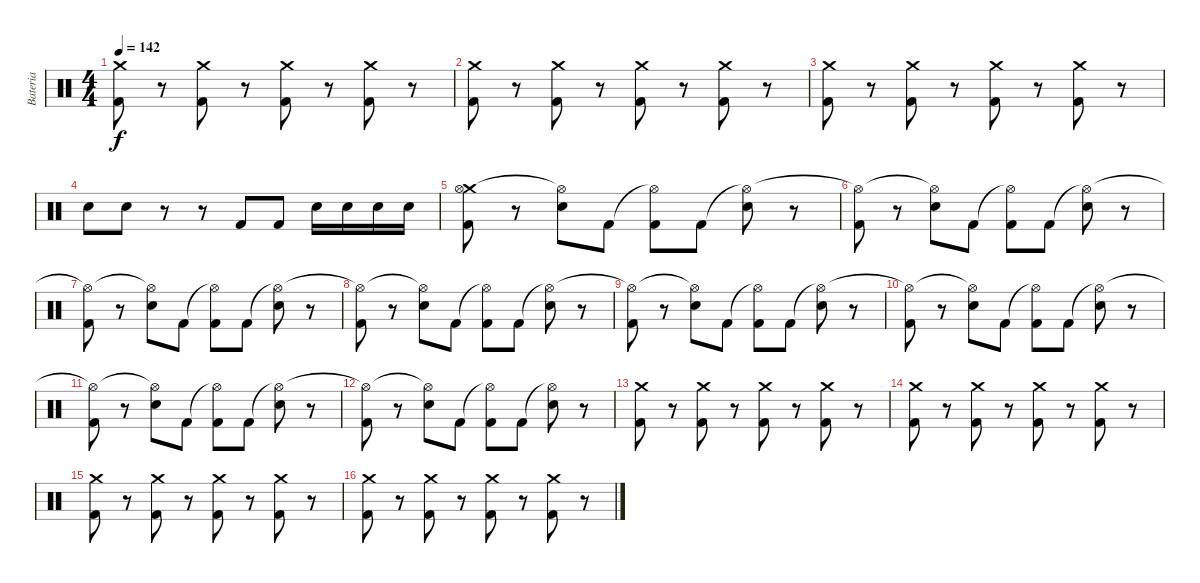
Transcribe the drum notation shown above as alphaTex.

\track ("Bateria" "Bateria") {instrument percussion}
\staff {score}
\articulation defaults
\ts (4 4)
\tempo 142
\clef neutral
\ks c
("Crash medium (hit)" "Kick (hit) 2").8{dy f} r.8 ("Crash medium (hit)" "Kick (hit) 2").8 r.8 ("Crash medium (hit)" "Kick (hit) 2").8 r.8 ("Crash medium (hit)" "Kick (hit) 2").8 r.8 |
("Crash medium (hit)" "Kick (hit) 2").8 r.8 ("Crash medium (hit)" "Kick (hit) 2").8 r.8 ("Crash medium (hit)" "Kick (hit) 2").8 r.8 ("Crash medium (hit)" "Kick (hit) 2").8 r.8 |
("Crash medium (hit)" "Kick (hit) 2").8 r.8 ("Crash medium (hit)" "Kick (hit) 2").8 r.8 ("Crash medium (hit)" "Kick (hit) 2").8 r.8 ("Crash medium (hit)" "Kick (hit) 2").8 r.8 |
"Electric Snare (hit)".8 "Electric Snare (hit)".8 r.8 r.8 "Kick (hit) 2".8 "Kick (hit) 2".8 "Electric Snare (hit)".16 "Electric Snare (hit)".16 "Electric Snare (hit)".16 "Electric Snare (hit)".16 |
("Crash medium (hit)" "Hi-Hat (open)" "Kick (hit) 2").8 r.8 ("Hi-Hat (open)"{t} "Electric Snare (hit)").8 "Kick (hit) 2".8 ("Hi-Hat (open)"{t} "Kick (hit) 2").8 "Kick (hit) 2".8 ("Hi-Hat (open)"{t} "Electric Snare (hit)").8 r.8 |
("Hi-Hat (open)"{t} "Kick (hit) 2").8 r.8 ("Hi-Hat (open)"{t} "Electric Snare (hit)").8 "Kick (hit) 2".8 ("Hi-Hat (open)"{t} "Kick (hit) 2").8 "Kick (hit) 2".8 ("Hi-Hat (open)"{t} "Electric Snare (hit)").8 r.8 |
("Hi-Hat (open)"{t} "Kick (hit) 2").8 r.8 ("Hi-Hat (open)"{t} "Electric Snare (hit)").8 "Kick (hit) 2".8 ("Hi-Hat (open)"{t} "Kick (hit) 2").8 "Kick (hit) 2".8 ("Hi-Hat (open)"{t} "Electric Snare (hit)").8 r.8 |
("Hi-Hat (open)"{t} "Kick (hit) 2").8 r.8 ("Hi-Hat (open)"{t} "Electric Snare (hit)").8 "Kick (hit) 2".8 ("Hi-Hat (open)"{t} "Kick (hit) 2").8 "Kick (hit) 2".8 ("Hi-Hat (open)"{t} "Electric Snare (hit)").8 r.8 |
("Hi-Hat (open)"{t} "Kick (hit) 2").8 r.8 ("Hi-Hat (open)"{t} "Electric Snare (hit)").8 "Kick (hit) 2".8 ("Hi-Hat (open)"{t} "Kick (hit) 2").8 "Kick (hit) 2".8 ("Hi-Hat (open)"{t} "Electric Snare (hit)").8 r.8 |
("Hi-Hat (open)"{t} "Kick (hit) 2").8 r.8 ("Hi-Hat (open)"{t} "Electric Snare (hit)").8 "Kick (hit) 2".8 ("Hi-Hat (open)"{t} "Kick (hit) 2").8 "Kick (hit) 2".8 ("Hi-Hat (open)"{t} "Electric Snare (hit)").8 r.8 |
("Hi-Hat (open)"{t} "Kick (hit) 2").8 r.8 ("Hi-Hat (open)"{t} "Electric Snare (hit)").8 "Kick (hit) 2".8 ("Hi-Hat (open)"{t} "Kick (hit) 2").8 "Kick (hit) 2".8 ("Hi-Hat (open)"{t} "Electric Snare (hit)").8 r.8 |
("Hi-Hat (open)"{t} "Kick (hit) 2").8 r.8 ("Hi-Hat (open)"{t} "Electric Snare (hit)").8 "Kick (hit) 2".8 ("Hi-Hat (open)"{t} "Kick (hit) 2").8 "Kick (hit) 2".8 ("Hi-Hat (open)"{t} "Electric Snare (hit)").8 r.8 |
("Crash medium (hit)" "Kick (hit) 2").8 r.8 ("Crash medium (hit)" "Kick (hit) 2").8 r.8 ("Crash medium (hit)" "Kick (hit) 2").8 r.8 ("Crash medium (hit)" "Kick (hit) 2").8 r.8 |
("Crash medium (hit)" "Kick (hit) 2").8 r.8 ("Crash medium (hit)" "Kick (hit) 2").8 r.8 ("Crash medium (hit)" "Kick (hit) 2").8 r.8 ("Crash medium (hit)" "Kick (hit) 2").8 r.8 |
("Crash medium (hit)" "Kick (hit) 2").8 r.8 ("Crash medium (hit)" "Kick (hit) 2").8 r.8 ("Crash medium (hit)" "Kick (hit) 2").8 r.8 ("Crash medium (hit)" "Kick (hit) 2").8 r.8 |
("Crash medium (hit)" "Kick (hit) 2").8 r.8 ("Crash medium (hit)" "Kick (hit) 2").8 r.8 ("Crash medium (hit)" "Kick (hit) 2").8 r.8 ("Crash medium (hit)" "Kick (hit) 2").8 r.8
